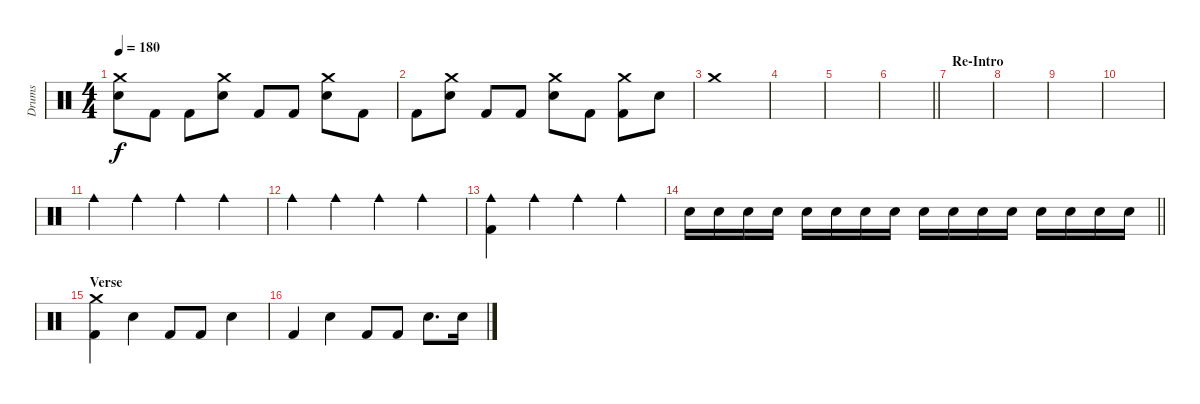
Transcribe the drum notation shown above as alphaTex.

\track ("Drums" "Drums") {instrument percussion}
\staff {score}
\articulation defaults
\ts (4 4)
\tempo 180
\clef neutral
\ks c
("Snare (hit) 2" "Crash medium (hit)").8{dy f} "Kick (hit) 2".8 "Kick (hit) 2".8 ("Snare (hit) 2" "Crash medium (hit)").8 "Kick (hit) 2".8 "Kick (hit) 2".8 ("Snare (hit) 2" "Crash medium (hit)").8 "Kick (hit) 2".8 |
"Kick (hit) 2".8 ("Snare (hit) 2" "Crash medium (hit)").8 "Kick (hit) 2".8 "Kick (hit) 2".8 ("Snare (hit) 2" "Crash medium (hit)").8 "Kick (hit) 2".8 ("Kick (hit) 2" "Crash medium (hit)").8 "Snare (hit) 2".8 |
"Crash medium (hit)".1 |
|
|
\barLineRight lightlight
|
\section ("" "Re-Intro")
|
|
|
|
"Cowbell medium (hit)".4 "Cowbell medium (hit)".4 "Cowbell medium (hit)".4 "Cowbell medium (hit)".4 |
"Cowbell medium (hit)".4 "Cowbell medium (hit)".4 "Cowbell medium (hit)".4 "Cowbell medium (hit)".4 |
("Cowbell medium (hit)" "Kick (hit) 2").4 "Cowbell medium (hit)".4 "Cowbell medium (hit)".4 "Cowbell medium (hit)".4 |
\barLineRight lightlight "Snare (hit) 2".16 "Snare (hit) 2".16 "Snare (hit) 2".16 "Snare (hit) 2".16 "Snare (hit) 2".16 "Snare (hit) 2".16 "Snare (hit) 2".16 "Snare (hit) 2".16 "Snare (hit) 2".16 "Snare (hit) 2".16 "Snare (hit) 2".16 "Snare (hit) 2".16 "Snare (hit) 2".16 "Snare (hit) 2".16 "Snare (hit) 2".16 "Snare (hit) 2".16
|
\section ("" "Verse")
("Kick (hit) 2" "Crash medium (hit)").4{volume 15} "Snare (hit) 2".4 "Kick (hit) 2".8 "Kick (hit) 2".8 "Snare (hit) 2".4 |
"Kick (hit) 2".4 "Snare (hit) 2".4 "Kick (hit) 2".8 "Kick (hit) 2".8 "Snare (hit) 2".8{d} "Snare (hit) 2".16
